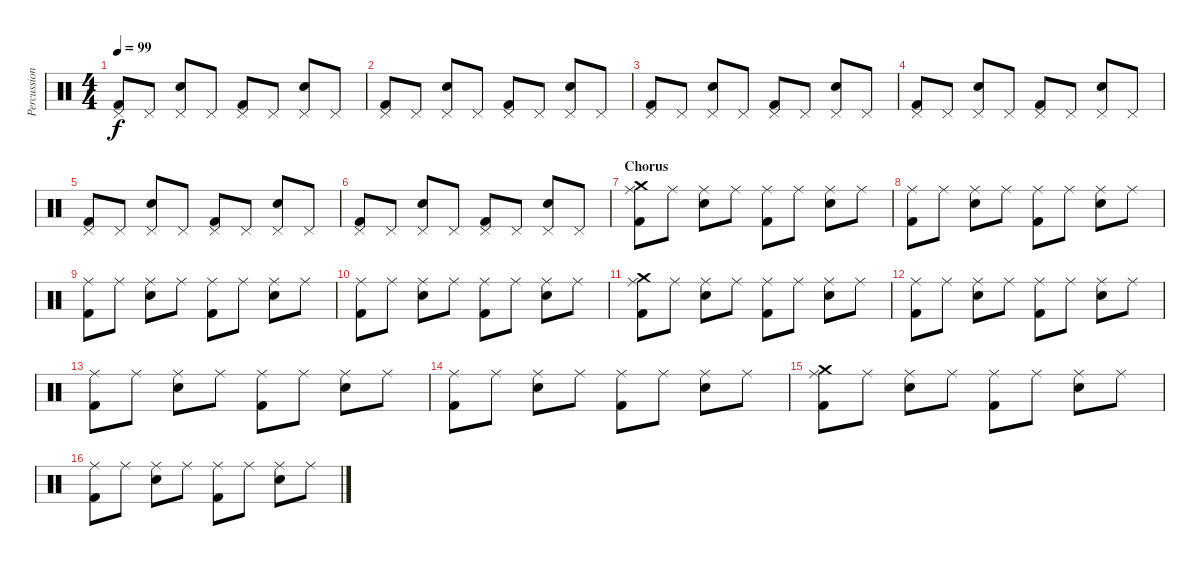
\track ("Percussion" "Percussion") {instrument percussion}
\staff {score}
\articulation defaults
\ts (4 4)
\tempo 99
\clef neutral
\ks c
("Pedal Hi-Hat (hit)" "Kick (hit) 2").8{dy f} "Pedal Hi-Hat (hit)".8 ("Pedal Hi-Hat (hit)" "Electric Snare (hit)").8 "Pedal Hi-Hat (hit)".8 ("Pedal Hi-Hat (hit)" "Kick (hit) 2").8 "Pedal Hi-Hat (hit)".8 ("Pedal Hi-Hat (hit)" "Electric Snare (hit)").8 "Pedal Hi-Hat (hit)".8 |
("Pedal Hi-Hat (hit)" "Kick (hit) 2").8 "Pedal Hi-Hat (hit)".8 ("Pedal Hi-Hat (hit)" "Electric Snare (hit)").8 "Pedal Hi-Hat (hit)".8 ("Pedal Hi-Hat (hit)" "Kick (hit) 2").8 "Pedal Hi-Hat (hit)".8 ("Pedal Hi-Hat (hit)" "Electric Snare (hit)").8 "Pedal Hi-Hat (hit)".8 |
("Pedal Hi-Hat (hit)" "Kick (hit) 2").8 "Pedal Hi-Hat (hit)".8 ("Pedal Hi-Hat (hit)" "Electric Snare (hit)").8 "Pedal Hi-Hat (hit)".8 ("Pedal Hi-Hat (hit)" "Kick (hit) 2").8 "Pedal Hi-Hat (hit)".8 ("Pedal Hi-Hat (hit)" "Electric Snare (hit)").8 "Pedal Hi-Hat (hit)".8 |
("Pedal Hi-Hat (hit)" "Kick (hit) 2").8 "Pedal Hi-Hat (hit)".8 ("Pedal Hi-Hat (hit)" "Electric Snare (hit)").8 "Pedal Hi-Hat (hit)".8 ("Pedal Hi-Hat (hit)" "Kick (hit) 2").8 "Pedal Hi-Hat (hit)".8 ("Pedal Hi-Hat (hit)" "Electric Snare (hit)").8 "Pedal Hi-Hat (hit)".8 |
("Pedal Hi-Hat (hit)" "Kick (hit) 2").8 "Pedal Hi-Hat (hit)".8 ("Pedal Hi-Hat (hit)" "Electric Snare (hit)").8 "Pedal Hi-Hat (hit)".8 ("Pedal Hi-Hat (hit)" "Kick (hit) 2").8 "Pedal Hi-Hat (hit)".8 ("Pedal Hi-Hat (hit)" "Electric Snare (hit)").8 "Pedal Hi-Hat (hit)".8 |
("Pedal Hi-Hat (hit)" "Kick (hit) 2").8 "Pedal Hi-Hat (hit)".8 ("Pedal Hi-Hat (hit)" "Electric Snare (hit)").8 "Pedal Hi-Hat (hit)".8 ("Pedal Hi-Hat (hit)" "Kick (hit) 2").8 "Pedal Hi-Hat (hit)".8 ("Pedal Hi-Hat (hit)" "Electric Snare (hit)").8 "Pedal Hi-Hat (hit)".8 |
\section ("" "Chorus")
("Crash medium (hit)" "Ride (middle)" "Kick (hit) 2").8 "Ride (middle)".8 ("Ride (middle)" "Electric Snare (hit)").8 "Ride (middle)".8 ("Ride (middle)" "Kick (hit) 2").8 "Ride (middle)".8 ("Ride (middle)" "Electric Snare (hit)").8 "Ride (middle)".8 |
("Ride (middle)" "Kick (hit) 2").8 "Ride (middle)".8 ("Ride (middle)" "Electric Snare (hit)").8 "Ride (middle)".8 ("Ride (middle)" "Kick (hit) 2").8 "Ride (middle)".8 ("Ride (middle)" "Electric Snare (hit)").8 "Ride (middle)".8 |
("Ride (middle)" "Kick (hit) 2").8 "Ride (middle)".8 ("Ride (middle)" "Electric Snare (hit)").8 "Ride (middle)".8 ("Ride (middle)" "Kick (hit) 2").8 "Ride (middle)".8 ("Ride (middle)" "Electric Snare (hit)").8 "Ride (middle)".8 |
("Ride (middle)" "Kick (hit) 2").8 "Ride (middle)".8 ("Ride (middle)" "Electric Snare (hit)").8 "Ride (middle)".8 ("Ride (middle)" "Kick (hit) 2").8 "Ride (middle)".8 ("Ride (middle)" "Electric Snare (hit)").8 "Ride (middle)".8 |
("Crash medium (hit)" "Ride (middle)" "Kick (hit) 2").8 "Ride (middle)".8 ("Ride (middle)" "Electric Snare (hit)").8 "Ride (middle)".8 ("Ride (middle)" "Kick (hit) 2").8 "Ride (middle)".8 ("Ride (middle)" "Electric Snare (hit)").8 "Ride (middle)".8 |
("Ride (middle)" "Kick (hit) 2").8 "Ride (middle)".8 ("Ride (middle)" "Electric Snare (hit)").8 "Ride (middle)".8 ("Ride (middle)" "Kick (hit) 2").8 "Ride (middle)".8 ("Ride (middle)" "Electric Snare (hit)").8 "Ride (middle)".8 |
("Ride (middle)" "Kick (hit) 2").8 "Ride (middle)".8 ("Ride (middle)" "Electric Snare (hit)").8 "Ride (middle)".8 ("Ride (middle)" "Kick (hit) 2").8 "Ride (middle)".8 ("Ride (middle)" "Electric Snare (hit)").8 "Ride (middle)".8 |
("Ride (middle)" "Kick (hit) 2").8 "Ride (middle)".8 ("Ride (middle)" "Electric Snare (hit)").8 "Ride (middle)".8 ("Ride (middle)" "Kick (hit) 2").8 "Ride (middle)".8 ("Ride (middle)" "Electric Snare (hit)").8 "Ride (middle)".8 |
("Crash medium (hit)" "Ride (middle)" "Kick (hit) 2").8 "Ride (middle)".8 ("Ride (middle)" "Electric Snare (hit)").8 "Ride (middle)".8 ("Ride (middle)" "Kick (hit) 2").8 "Ride (middle)".8 ("Ride (middle)" "Electric Snare (hit)").8 "Ride (middle)".8 |
("Ride (middle)" "Kick (hit) 2").8 "Ride (middle)".8 ("Ride (middle)" "Electric Snare (hit)").8 "Ride (middle)".8 ("Ride (middle)" "Kick (hit) 2").8 "Ride (middle)".8 ("Ride (middle)" "Electric Snare (hit)").8 "Ride (middle)".8
